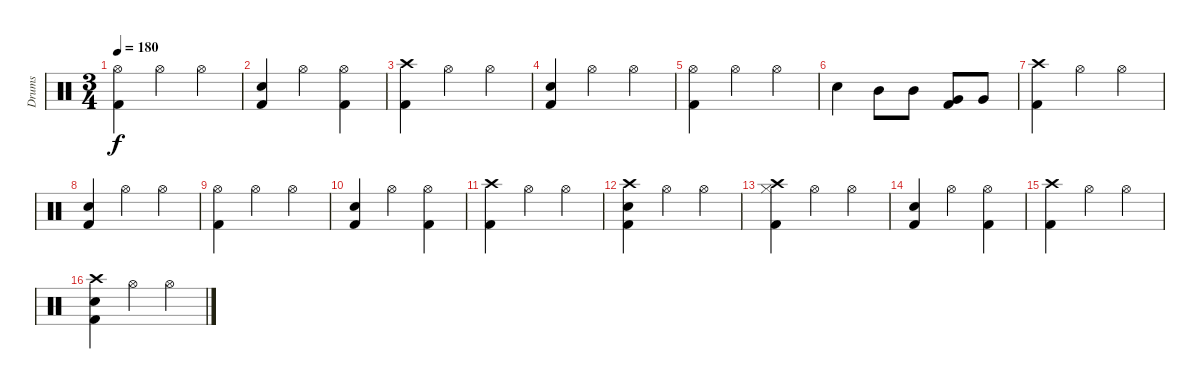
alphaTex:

\track ("Drums" "Drums") {instrument percussion}
\staff {score}
\articulation defaults
\ts (3 4)
\tempo 180
\clef neutral
\ks c
("Hi-Hat (open)" "Kick (hit) 2").4{dy f} "Hi-Hat (open)".4 "Hi-Hat (open)".4 |
("Snare (hit) 2" "Kick (hit) 2").4 "Hi-Hat (open)".4 ("Hi-Hat (open)" "Kick (hit) 2").4 |
("Crash high (hit)" "Kick (hit) 2").4 "Hi-Hat (open)".4 "Hi-Hat (open)".4 |
("Snare (hit) 2" "Kick (hit) 2").4 "Hi-Hat (open)".4 "Hi-Hat (open)".4 |
("Hi-Hat (open)" "Kick (hit) 2").4 "Hi-Hat (open)".4 "Hi-Hat (open)".4 |
"Snare (hit) 2".4 "Mid Tom (hit)".8 "Mid Tom (hit)".8 ("Very Low Tom (hit)" "Kick (hit) 2").8 "Very Low Tom (hit)".8 |
("Crash high (hit)" "Kick (hit) 2").4 "Hi-Hat (open)".4 "Hi-Hat (open)".4 |
("Snare (hit) 2" "Kick (hit) 2").4 "Hi-Hat (open)".4 "Hi-Hat (open)".4 |
("Hi-Hat (open)" "Kick (hit) 2").4 "Hi-Hat (open)".4 "Hi-Hat (open)".4 |
("Snare (hit) 2" "Kick (hit) 2").4 "Hi-Hat (open)".4 ("Hi-Hat (open)" "Kick (hit) 2").4 |
("Crash high (hit)" "Kick (hit) 2").4 "Hi-Hat (open)".4 "Hi-Hat (open)".4 |
("Snare (hit) 2" "Crash high (hit)" "Kick (hit) 2").4 "Hi-Hat (open)".4 "Hi-Hat (open)".4 |
("Hi-Hat (closed)" "Kick (hit) 2" "Crash high (hit)").4 "Hi-Hat (open)".4 "Hi-Hat (open)".4 |
("Snare (hit) 2" "Kick (hit) 2").4 "Hi-Hat (open)".4 ("Hi-Hat (open)" "Kick (hit) 2").4 |
("Crash high (hit)" "Kick (hit) 2").4 "Hi-Hat (open)".4 "Hi-Hat (open)".4 |
("Snare (hit) 2" "Crash high (hit)" "Kick (hit) 2").4 "Hi-Hat (open)".4 "Hi-Hat (open)".4
